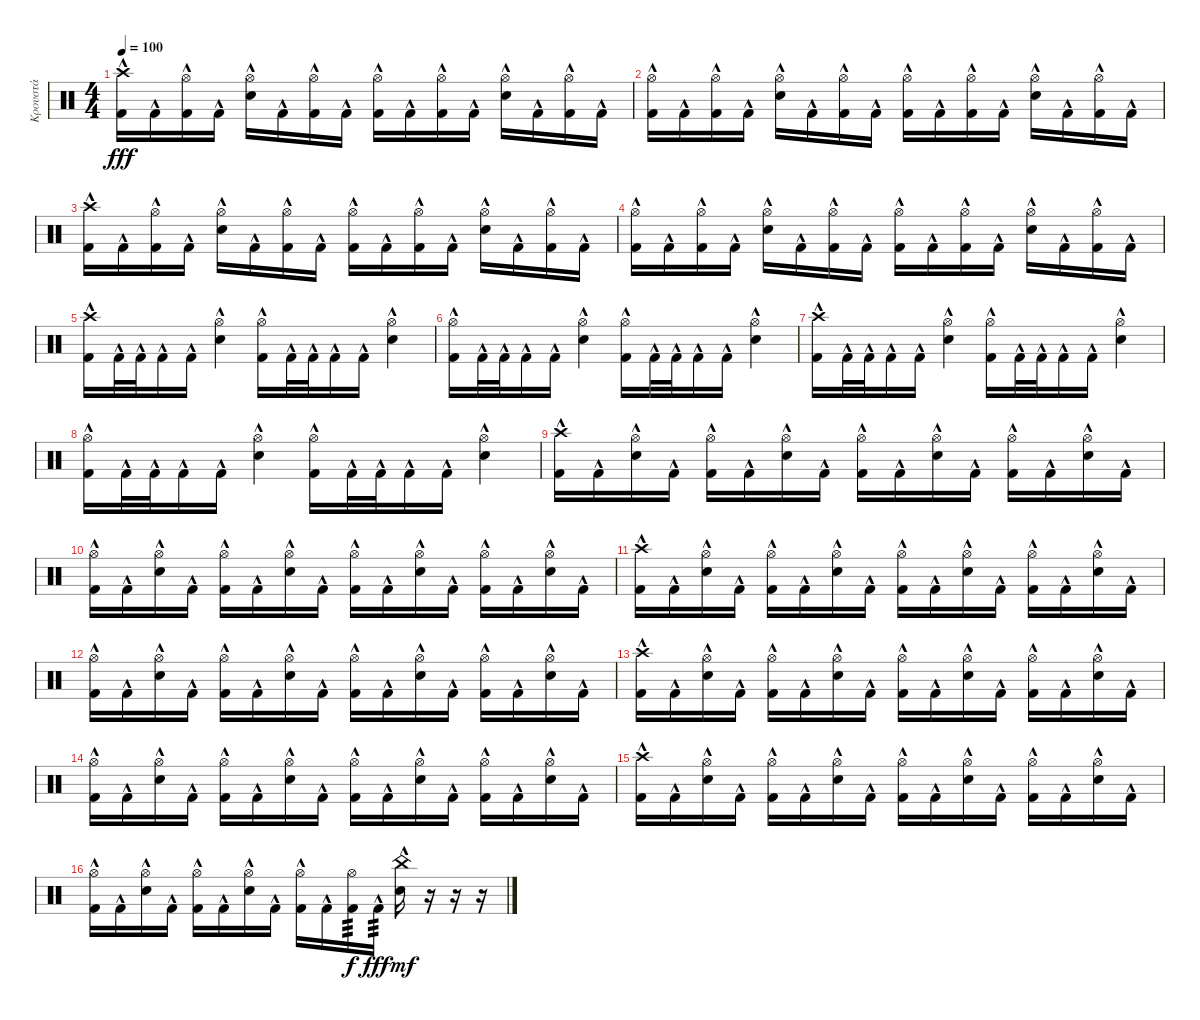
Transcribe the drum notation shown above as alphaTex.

\track ("Κρουστά" "Κρουστά") {instrument percussion}
\staff {score}
\articulation defaults
\ts (4 4)
\tempo 100
\clef neutral
\ks c
("Kick (hit) 2"{hac} "Crash high (hit)").16{dy fff} "Kick (hit) 2"{hac}.16 ("Kick (hit) 2"{hac} "Hi-Hat (open)").16 "Kick (hit) 2"{hac}.16 ("Electric Snare (hit)"{hac} "Hi-Hat (open)").16 "Kick (hit) 2"{hac}.16 ("Kick (hit) 2"{hac} "Hi-Hat (open)").16 "Kick (hit) 2"{hac}.16 ("Kick (hit) 2"{hac} "Hi-Hat (open)").16 "Kick (hit) 2"{hac}.16 ("Kick (hit) 2"{hac} "Hi-Hat (open)").16 "Kick (hit) 2"{hac}.16 ("Electric Snare (hit)"{hac} "Hi-Hat (open)").16 "Kick (hit) 2"{hac}.16 ("Kick (hit) 2"{hac} "Hi-Hat (open)").16 "Kick (hit) 2"{hac}.16 |
("Kick (hit) 2"{hac} "Hi-Hat (open)").16 "Kick (hit) 2"{hac}.16 ("Kick (hit) 2"{hac} "Hi-Hat (open)").16 "Kick (hit) 2"{hac}.16 ("Electric Snare (hit)"{hac} "Hi-Hat (open)").16 "Kick (hit) 2"{hac}.16 ("Kick (hit) 2"{hac} "Hi-Hat (open)").16 "Kick (hit) 2"{hac}.16 ("Kick (hit) 2"{hac} "Hi-Hat (open)").16 "Kick (hit) 2"{hac}.16 ("Kick (hit) 2"{hac} "Hi-Hat (open)").16 "Kick (hit) 2"{hac}.16 ("Electric Snare (hit)"{hac} "Hi-Hat (open)").16 "Kick (hit) 2"{hac}.16 ("Kick (hit) 2"{hac} "Hi-Hat (open)").16 "Kick (hit) 2"{hac}.16 |
("Kick (hit) 2"{hac} "Crash high (hit)").16 "Kick (hit) 2"{hac}.16 ("Kick (hit) 2"{hac} "Hi-Hat (open)").16 "Kick (hit) 2"{hac}.16 ("Electric Snare (hit)"{hac} "Hi-Hat (open)").16 "Kick (hit) 2"{hac}.16 ("Kick (hit) 2"{hac} "Hi-Hat (open)").16 "Kick (hit) 2"{hac}.16 ("Kick (hit) 2"{hac} "Hi-Hat (open)").16 "Kick (hit) 2"{hac}.16 ("Kick (hit) 2"{hac} "Hi-Hat (open)").16 "Kick (hit) 2"{hac}.16 ("Electric Snare (hit)"{hac} "Hi-Hat (open)").16 "Kick (hit) 2"{hac}.16 ("Kick (hit) 2"{hac} "Hi-Hat (open)").16 "Kick (hit) 2"{hac}.16 |
("Kick (hit) 2"{hac} "Hi-Hat (open)").16 "Kick (hit) 2"{hac}.16 ("Kick (hit) 2"{hac} "Hi-Hat (open)").16 "Kick (hit) 2"{hac}.16 ("Electric Snare (hit)"{hac} "Hi-Hat (open)").16 "Kick (hit) 2"{hac}.16 ("Kick (hit) 2"{hac} "Hi-Hat (open)").16 "Kick (hit) 2"{hac}.16 ("Kick (hit) 2"{hac} "Hi-Hat (open)").16 "Kick (hit) 2"{hac}.16 ("Kick (hit) 2"{hac} "Hi-Hat (open)").16 "Kick (hit) 2"{hac}.16 ("Electric Snare (hit)"{hac} "Hi-Hat (open)").16 "Kick (hit) 2"{hac}.16 ("Kick (hit) 2"{hac} "Hi-Hat (open)").16 "Kick (hit) 2"{hac}.16 |
("Kick (hit) 2"{hac} "Crash high (hit)").16 "Kick (hit) 2"{hac}.32 "Kick (hit) 2"{hac}.32 "Kick (hit) 2"{hac}.16 "Kick (hit) 2"{hac}.16 ("Electric Snare (hit)"{hac} "Hi-Hat (open)").4 ("Kick (hit) 2"{hac} "Hi-Hat (open)").16 "Kick (hit) 2"{hac}.32 "Kick (hit) 2"{hac}.32 "Kick (hit) 2"{hac}.16 "Kick (hit) 2"{hac}.16 ("Electric Snare (hit)"{hac} "Hi-Hat (open)").4 |
("Kick (hit) 2"{hac} "Hi-Hat (open)").16 "Kick (hit) 2"{hac}.32 "Kick (hit) 2"{hac}.32 "Kick (hit) 2"{hac}.16 "Kick (hit) 2"{hac}.16 ("Electric Snare (hit)"{hac} "Hi-Hat (open)").4 ("Kick (hit) 2"{hac} "Hi-Hat (open)").16 "Kick (hit) 2"{hac}.32 "Kick (hit) 2"{hac}.32 "Kick (hit) 2"{hac}.16 "Kick (hit) 2"{hac}.16 ("Electric Snare (hit)"{hac} "Hi-Hat (open)").4 |
("Kick (hit) 2"{hac} "Crash high (hit)").16 "Kick (hit) 2"{hac}.32 "Kick (hit) 2"{hac}.32 "Kick (hit) 2"{hac}.16 "Kick (hit) 2"{hac}.16 ("Electric Snare (hit)"{hac} "Hi-Hat (open)").4 ("Kick (hit) 2"{hac} "Hi-Hat (open)").16 "Kick (hit) 2"{hac}.32 "Kick (hit) 2"{hac}.32 "Kick (hit) 2"{hac}.16 "Kick (hit) 2"{hac}.16 ("Electric Snare (hit)"{hac} "Hi-Hat (open)").4 |
("Kick (hit) 2"{hac} "Hi-Hat (open)").16 "Kick (hit) 2"{hac}.32 "Kick (hit) 2"{hac}.32 "Kick (hit) 2"{hac}.16 "Kick (hit) 2"{hac}.16 ("Electric Snare (hit)"{hac} "Hi-Hat (open)").4 ("Kick (hit) 2"{hac} "Hi-Hat (open)").16 "Kick (hit) 2"{hac}.32 "Kick (hit) 2"{hac}.32 "Kick (hit) 2"{hac}.16 "Kick (hit) 2"{hac}.16 ("Electric Snare (hit)"{hac} "Hi-Hat (open)").4 |
("Kick (hit) 2"{hac} "Crash high (hit)").16 "Kick (hit) 2"{hac}.16 ("Electric Snare (hit)"{hac} "Hi-Hat (open)").16 "Kick (hit) 2"{hac}.16 ("Kick (hit) 2"{hac} "Hi-Hat (open)").16 "Kick (hit) 2"{hac}.16 ("Electric Snare (hit)"{hac} "Hi-Hat (open)").16 "Kick (hit) 2"{hac}.16 ("Kick (hit) 2"{hac} "Hi-Hat (open)").16 "Kick (hit) 2"{hac}.16 ("Electric Snare (hit)"{hac} "Hi-Hat (open)").16 "Kick (hit) 2"{hac}.16 ("Kick (hit) 2"{hac} "Hi-Hat (open)").16 "Kick (hit) 2"{hac}.16 ("Electric Snare (hit)"{hac} "Hi-Hat (open)").16 "Kick (hit) 2"{hac}.16 |
("Kick (hit) 2"{hac} "Hi-Hat (open)").16 "Kick (hit) 2"{hac}.16 ("Electric Snare (hit)"{hac} "Hi-Hat (open)").16 "Kick (hit) 2"{hac}.16 ("Kick (hit) 2"{hac} "Hi-Hat (open)").16 "Kick (hit) 2"{hac}.16 ("Electric Snare (hit)"{hac} "Hi-Hat (open)").16 "Kick (hit) 2"{hac}.16 ("Kick (hit) 2"{hac} "Hi-Hat (open)").16 "Kick (hit) 2"{hac}.16 ("Electric Snare (hit)"{hac} "Hi-Hat (open)").16 "Kick (hit) 2"{hac}.16 ("Kick (hit) 2"{hac} "Hi-Hat (open)").16 "Kick (hit) 2"{hac}.16 ("Electric Snare (hit)"{hac} "Hi-Hat (open)").16 "Kick (hit) 2"{hac}.16 |
("Kick (hit) 2"{hac} "Crash high (hit)").16 "Kick (hit) 2"{hac}.16 ("Electric Snare (hit)"{hac} "Hi-Hat (open)").16 "Kick (hit) 2"{hac}.16 ("Kick (hit) 2"{hac} "Hi-Hat (open)").16 "Kick (hit) 2"{hac}.16 ("Electric Snare (hit)"{hac} "Hi-Hat (open)").16 "Kick (hit) 2"{hac}.16 ("Kick (hit) 2"{hac} "Hi-Hat (open)").16 "Kick (hit) 2"{hac}.16 ("Electric Snare (hit)"{hac} "Hi-Hat (open)").16 "Kick (hit) 2"{hac}.16 ("Kick (hit) 2"{hac} "Hi-Hat (open)").16 "Kick (hit) 2"{hac}.16 ("Electric Snare (hit)"{hac} "Hi-Hat (open)").16 "Kick (hit) 2"{hac}.16 |
("Kick (hit) 2"{hac} "Hi-Hat (open)").16 "Kick (hit) 2"{hac}.16 ("Electric Snare (hit)"{hac} "Hi-Hat (open)").16 "Kick (hit) 2"{hac}.16 ("Kick (hit) 2"{hac} "Hi-Hat (open)").16 "Kick (hit) 2"{hac}.16 ("Electric Snare (hit)"{hac} "Hi-Hat (open)").16 "Kick (hit) 2"{hac}.16 ("Kick (hit) 2"{hac} "Hi-Hat (open)").16 "Kick (hit) 2"{hac}.16 ("Electric Snare (hit)"{hac} "Hi-Hat (open)").16 "Kick (hit) 2"{hac}.16 ("Kick (hit) 2"{hac} "Hi-Hat (open)").16 "Kick (hit) 2"{hac}.16 ("Electric Snare (hit)"{hac} "Hi-Hat (open)").16 "Kick (hit) 2"{hac}.16 |
("Kick (hit) 2"{hac} "Crash high (hit)").16 "Kick (hit) 2"{hac}.16 ("Electric Snare (hit)"{hac} "Hi-Hat (open)").16 "Kick (hit) 2"{hac}.16 ("Kick (hit) 2"{hac} "Hi-Hat (open)").16 "Kick (hit) 2"{hac}.16 ("Electric Snare (hit)"{hac} "Hi-Hat (open)").16 "Kick (hit) 2"{hac}.16 ("Kick (hit) 2"{hac} "Hi-Hat (open)").16 "Kick (hit) 2"{hac}.16 ("Electric Snare (hit)"{hac} "Hi-Hat (open)").16 "Kick (hit) 2"{hac}.16 ("Kick (hit) 2"{hac} "Hi-Hat (open)").16 "Kick (hit) 2"{hac}.16 ("Electric Snare (hit)"{hac} "Hi-Hat (open)").16 "Kick (hit) 2"{hac}.16 |
("Kick (hit) 2"{hac} "Hi-Hat (open)").16 "Kick (hit) 2"{hac}.16 ("Electric Snare (hit)"{hac} "Hi-Hat (open)").16 "Kick (hit) 2"{hac}.16 ("Kick (hit) 2"{hac} "Hi-Hat (open)").16 "Kick (hit) 2"{hac}.16 ("Electric Snare (hit)"{hac} "Hi-Hat (open)").16 "Kick (hit) 2"{hac}.16 ("Kick (hit) 2"{hac} "Hi-Hat (open)").16 "Kick (hit) 2"{hac}.16 ("Electric Snare (hit)"{hac} "Hi-Hat (open)").16 "Kick (hit) 2"{hac}.16 ("Kick (hit) 2"{hac} "Hi-Hat (open)").16 "Kick (hit) 2"{hac}.16 ("Electric Snare (hit)"{hac} "Hi-Hat (open)").16 "Kick (hit) 2"{hac}.16 |
("Kick (hit) 2"{hac} "Crash high (hit)").16 "Kick (hit) 2"{hac}.16 ("Electric Snare (hit)"{hac} "Hi-Hat (open)").16 "Kick (hit) 2"{hac}.16 ("Kick (hit) 2"{hac} "Hi-Hat (open)").16 "Kick (hit) 2"{hac}.16 ("Electric Snare (hit)"{hac} "Hi-Hat (open)").16 "Kick (hit) 2"{hac}.16 ("Kick (hit) 2"{hac} "Hi-Hat (open)").16 "Kick (hit) 2"{hac}.16 ("Electric Snare (hit)"{hac} "Hi-Hat (open)").16 "Kick (hit) 2"{hac}.16 ("Kick (hit) 2"{hac} "Hi-Hat (open)").16 "Kick (hit) 2"{hac}.16 ("Electric Snare (hit)"{hac} "Hi-Hat (open)").16 "Kick (hit) 2"{hac}.16 |
("Kick (hit) 2"{hac} "Hi-Hat (open)").16 "Kick (hit) 2"{hac}.16 ("Electric Snare (hit)"{hac} "Hi-Hat (open)").16 "Kick (hit) 2"{hac}.16 ("Kick (hit) 2"{hac} "Hi-Hat (open)").16 "Kick (hit) 2"{hac}.16 ("Electric Snare (hit)"{hac} "Hi-Hat (open)").16 "Kick (hit) 2"{hac}.16 ("Kick (hit) 2"{hac} "Hi-Hat (open)").16 "Kick (hit) 2"{hac}.16 ("Kick (hit) 2" "Hi-Hat (open)").16{tp 3 dy f} "Kick (hit) 2"{hac}.16{tp 3 dy fff} ("Electric Snare (hit)"{hac} "China (hit)").16{dy mf} r.16 r.16 r.16
